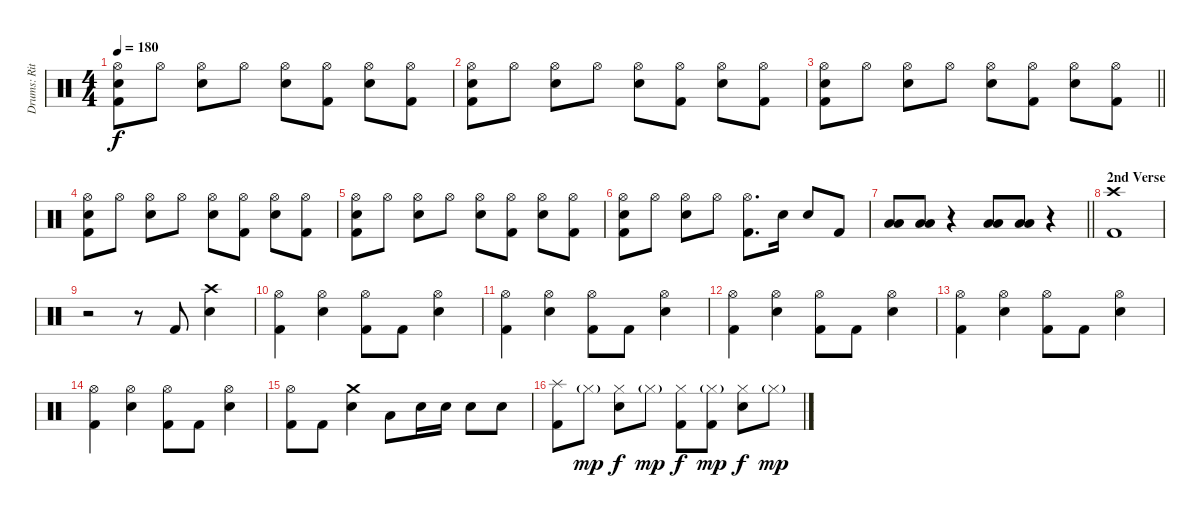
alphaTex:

\track ("Drums: Ritsu Tainaka" "Drums: Rit") {instrument percussion}
\staff {score}
\articulation defaults
\ts (4 4)
\tempo 180
\clef neutral
\ks c
("Hi-Hat (open)" "Electric Snare (hit)" "Kick (hit) 2").8{dy f} "Hi-Hat (open)".8 ("Hi-Hat (open)" "Electric Snare (hit)").8 "Hi-Hat (open)".8 ("Hi-Hat (open)" "Electric Snare (hit)").8 ("Hi-Hat (open)" "Kick (hit) 2").8 ("Hi-Hat (open)" "Electric Snare (hit)").8 ("Hi-Hat (open)" "Kick (hit) 2").8 |
("Hi-Hat (open)" "Electric Snare (hit)" "Kick (hit) 2").8 "Hi-Hat (open)".8 ("Hi-Hat (open)" "Electric Snare (hit)").8 "Hi-Hat (open)".8 ("Hi-Hat (open)" "Electric Snare (hit)").8 ("Hi-Hat (open)" "Kick (hit) 2").8 ("Hi-Hat (open)" "Electric Snare (hit)").8 ("Hi-Hat (open)" "Kick (hit) 2").8 |
\barLineRight lightlight
("Hi-Hat (open)" "Electric Snare (hit)" "Kick (hit) 2").8 "Hi-Hat (open)".8 ("Hi-Hat (open)" "Electric Snare (hit)").8 "Hi-Hat (open)".8 ("Hi-Hat (open)" "Electric Snare (hit)").8 ("Hi-Hat (open)" "Kick (hit) 2").8 ("Hi-Hat (open)" "Electric Snare (hit)").8 ("Hi-Hat (open)" "Kick (hit) 2").8 |
("Hi-Hat (open)" "Electric Snare (hit)" "Kick (hit) 2").8 "Hi-Hat (open)".8 ("Hi-Hat (open)" "Electric Snare (hit)").8 "Hi-Hat (open)".8 ("Hi-Hat (open)" "Electric Snare (hit)").8 ("Hi-Hat (open)" "Kick (hit) 2").8 ("Hi-Hat (open)" "Electric Snare (hit)").8 ("Hi-Hat (open)" "Kick (hit) 2").8 |
("Hi-Hat (open)" "Electric Snare (hit)" "Kick (hit) 2").8 "Hi-Hat (open)".8 ("Hi-Hat (open)" "Electric Snare (hit)").8 "Hi-Hat (open)".8 ("Hi-Hat (open)" "Electric Snare (hit)").8 ("Hi-Hat (open)" "Kick (hit) 2").8 ("Hi-Hat (open)" "Electric Snare (hit)").8 ("Hi-Hat (open)" "Kick (hit) 2").8 |
("Hi-Hat (open)" "Electric Snare (hit)" "Kick (hit) 2").8 "Hi-Hat (open)".8 ("Hi-Hat (open)" "Electric Snare (hit)").8 "Hi-Hat (open)".8 ("Hi-Hat (open)" "Kick (hit) 2").8{d} "Electric Snare (hit)".16 "Electric Snare (hit)".8 "Kick (hit) 2".8 |
\barLineRight lightlight
("Low Tom (hit)" "Low Floor Tom (hit)").8 ("Low Tom (hit)" "Low Floor Tom (hit)").8 r.4 ("Low Tom (hit)" "Low Floor Tom (hit)").8 ("Low Tom (hit)" "Low Floor Tom (hit)").8 r.4 |
\section ("" "2nd Verse")
("Crash high (hit)" "Kick (hit) 2").1 |
r.2 r.8 "Kick (hit) 2".8 ("Crash high (hit)" "Electric Snare (hit)").4 |
("Hi-Hat (open)" "Kick (hit) 2").4 ("Hi-Hat (open)" "Electric Snare (hit)").4 ("Hi-Hat (open)" "Kick (hit) 2").8 "Kick (hit) 2".8 ("Hi-Hat (open)" "Electric Snare (hit)").4 |
("Hi-Hat (open)" "Kick (hit) 2").4 ("Hi-Hat (open)" "Electric Snare (hit)").4 ("Hi-Hat (open)" "Kick (hit) 2").8 "Kick (hit) 2".8 ("Hi-Hat (open)" "Electric Snare (hit)").4 |
("Hi-Hat (open)" "Kick (hit) 2").4 ("Hi-Hat (open)" "Electric Snare (hit)").4 ("Hi-Hat (open)" "Kick (hit) 2").8 "Kick (hit) 2".8 ("Hi-Hat (open)" "Electric Snare (hit)").4 |
("Hi-Hat (open)" "Kick (hit) 2").4 ("Hi-Hat (open)" "Electric Snare (hit)").4 ("Hi-Hat (open)" "Kick (hit) 2").8 "Kick (hit) 2".8 ("Hi-Hat (open)" "Electric Snare (hit)").4 |
("Hi-Hat (open)" "Kick (hit) 2").4 ("Hi-Hat (open)" "Electric Snare (hit)").4 ("Hi-Hat (open)" "Kick (hit) 2").8 "Kick (hit) 2".8 ("Hi-Hat (open)" "Electric Snare (hit)").4 |
("Hi-Hat (open)" "Kick (hit) 2").8 "Kick (hit) 2".8 ("Crash medium (hit)" "Electric Snare (hit)").4 "Low Tom (hit)".8 "Electric Snare (hit)".16 "Electric Snare (hit)".16 "Electric Snare (hit)".8 "Electric Snare (hit)".8 |
("Splash (hit)" "Kick (hit) 2").8 "Hi-Hat (closed)"{g}.8{dy mp} ("Hi-Hat (closed)" "Electric Snare (hit)").8{dy f} "Hi-Hat (closed)"{g}.8{dy mp} ("Hi-Hat (closed)" "Kick (hit) 2").8{dy f} ("Hi-Hat (closed)"{g} "Kick (hit) 2").8{dy mp} ("Hi-Hat (closed)" "Electric Snare (hit)").8{dy f} "Hi-Hat (closed)"{g}.8{dy mp}
